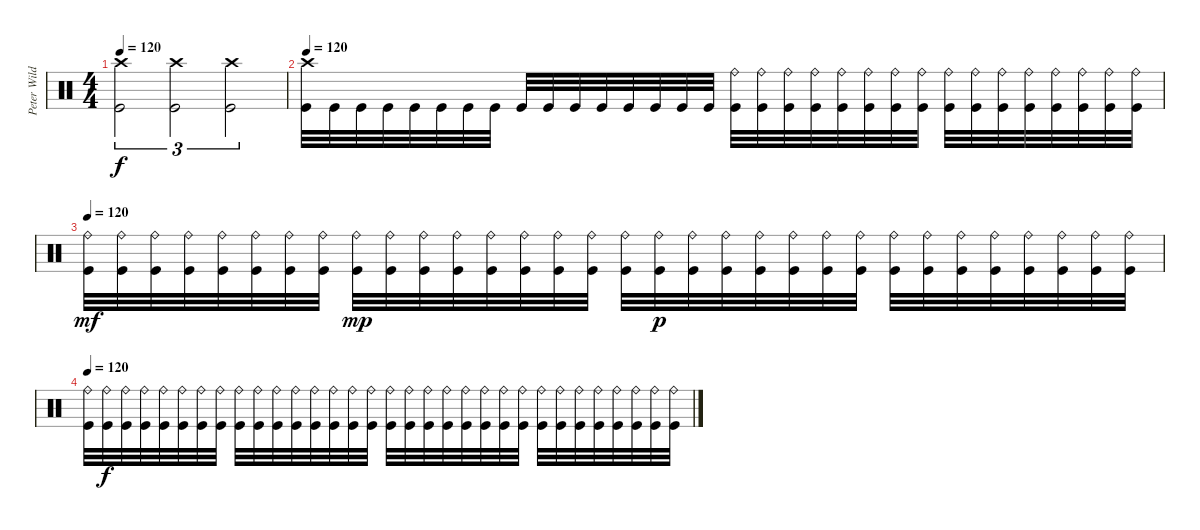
\track ("Peter Wildoer " "Peter Wild") {instrument percussion}
\staff {score}
\articulation defaults
\ts (4 4)
\tempo 120
\clef neutral
\ks c
("Crash high (hit)" "Kick (hit)").2{tu (3 2) dy f} ("Crash high (hit)" "Kick (hit)").2{tu (3 2)} ("Crash high (hit)" "Kick (hit)").2{tu (3 2)} |
\tempo 120
("Crash high (hit)" "Kick (hit)").32 "Kick (hit)".32 "Kick (hit)".32 "Kick (hit)".32 "Kick (hit)".32 "Kick (hit)".32 "Kick (hit)".32 "Kick (hit)".32 "Kick (hit)".32 "Kick (hit)".32 "Kick (hit)".32 "Kick (hit)".32 "Kick (hit)".32 "Kick (hit)".32 "Kick (hit)".32 "Kick (hit)".32 ("Ride (bell)" "Kick (hit)").32 ("Ride (bell)" "Kick (hit)").32 ("Ride (bell)" "Kick (hit)").32 ("Ride (bell)" "Kick (hit)").32 ("Ride (bell)" "Kick (hit)").32 ("Ride (bell)" "Kick (hit)").32 ("Ride (bell)" "Kick (hit)").32 ("Ride (bell)" "Kick (hit)").32 ("Ride (bell)" "Kick (hit)").32 ("Ride (bell)" "Kick (hit)").32 ("Ride (bell)" "Kick (hit)").32 ("Ride (bell)" "Kick (hit)").32 ("Ride (bell)" "Kick (hit)").32 ("Ride (bell)" "Kick (hit)").32 ("Ride (bell)" "Kick (hit)").32 ("Ride (bell)" "Kick (hit)").32 |
\tempo 120
("Ride (bell)" "Kick (hit)").32{dy mf volume 0} ("Ride (bell)" "Kick (hit)").32 ("Ride (bell)" "Kick (hit)").32 ("Ride (bell)" "Kick (hit)").32 ("Ride (bell)" "Kick (hit)").32 ("Ride (bell)" "Kick (hit)").32 ("Ride (bell)" "Kick (hit)").32 ("Ride (bell)" "Kick (hit)").32 ("Ride (bell)" "Kick (hit)").32{dy mp} ("Ride (bell)" "Kick (hit)").32 ("Ride (bell)" "Kick (hit)").32 ("Ride (bell)" "Kick (hit)").32 ("Ride (bell)" "Kick (hit)").32 ("Ride (bell)" "Kick (hit)").32 ("Ride (bell)" "Kick (hit)").32 ("Ride (bell)" "Kick (hit)").32 ("Ride (bell)" "Kick (hit)").32 ("Ride (bell)" "Kick (hit)").32{dy p} ("Ride (bell)" "Kick (hit)").32 ("Ride (bell)" "Kick (hit)").32 ("Ride (bell)" "Kick (hit)").32 ("Ride (bell)" "Kick (hit)").32 ("Ride (bell)" "Kick (hit)").32 ("Ride (bell)" "Kick (hit)").32 ("Ride (bell)" "Kick (hit)").32 ("Ride (bell)" "Kick (hit)").32 ("Ride (bell)" "Kick (hit)").32 ("Ride (bell)" "Kick (hit)").32 ("Ride (bell)" "Kick (hit)").32 ("Ride (bell)" "Kick (hit)").32 ("Ride (bell)" "Kick (hit)").32 ("Ride (bell)" "Kick (hit)").32 |
\tempo 120
("Ride (bell)" "Kick (hit)").32 ("Ride (bell)" "Kick (hit)").32{dy f} ("Ride (bell)" "Kick (hit)").32 ("Ride (bell)" "Kick (hit)").32 ("Ride (bell)" "Kick (hit)").32 ("Ride (bell)" "Kick (hit)").32 ("Ride (bell)" "Kick (hit)").32 ("Ride (bell)" "Kick (hit)").32 ("Ride (bell)" "Kick (hit)").32 ("Ride (bell)" "Kick (hit)").32 ("Ride (bell)" "Kick (hit)").32 ("Ride (bell)" "Kick (hit)").32 ("Ride (bell)" "Kick (hit)").32 ("Ride (bell)" "Kick (hit)").32 ("Ride (bell)" "Kick (hit)").32 ("Ride (bell)" "Kick (hit)").32 ("Ride (bell)" "Kick (hit)").32 ("Ride (bell)" "Kick (hit)").32 ("Ride (bell)" "Kick (hit)").32 ("Ride (bell)" "Kick (hit)").32 ("Ride (bell)" "Kick (hit)").32 ("Ride (bell)" "Kick (hit)").32 ("Ride (bell)" "Kick (hit)").32 ("Ride (bell)" "Kick (hit)").32 ("Ride (bell)" "Kick (hit)").32 ("Ride (bell)" "Kick (hit)").32 ("Ride (bell)" "Kick (hit)").32 ("Ride (bell)" "Kick (hit)").32 ("Ride (bell)" "Kick (hit)").32 ("Ride (bell)" "Kick (hit)").32 ("Ride (bell)" "Kick (hit)").32 ("Ride (bell)" "Kick (hit)").32
